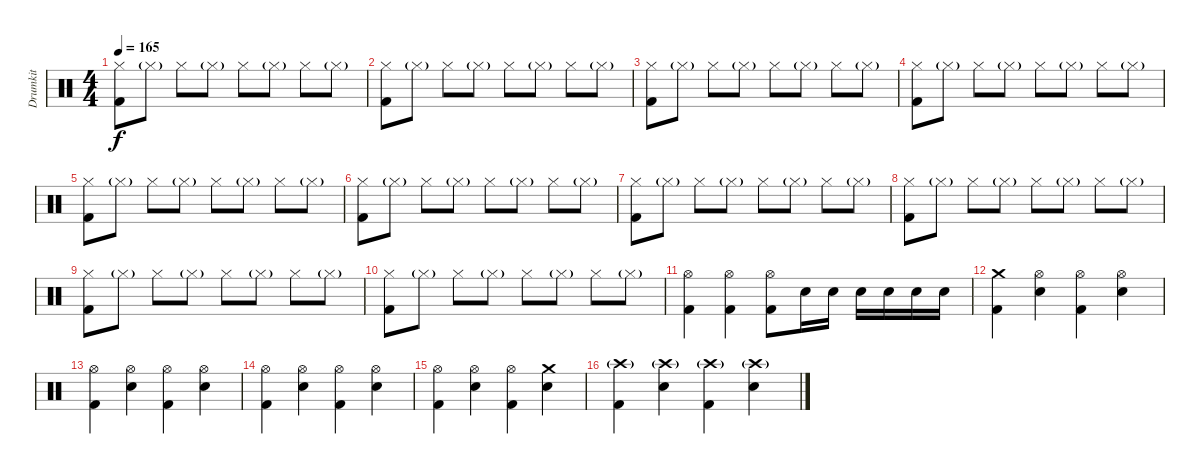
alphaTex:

\track ("Drumkit" "Drumkit") {instrument percussion}
\staff {score}
\articulation defaults
\ts (4 4)
\tempo 165
\clef neutral
\ks c
("Hi-Hat (closed)" "Kick (hit) 2").8{dy f} "Hi-Hat (closed)"{g}.8 "Hi-Hat (closed)".8 "Hi-Hat (closed)"{g}.8 "Hi-Hat (closed)".8 "Hi-Hat (closed)"{g}.8 "Hi-Hat (closed)".8 "Hi-Hat (closed)"{g}.8 |
("Hi-Hat (closed)" "Kick (hit) 2").8 "Hi-Hat (closed)"{g}.8 "Hi-Hat (closed)".8 "Hi-Hat (closed)"{g}.8 "Hi-Hat (closed)".8 "Hi-Hat (closed)"{g}.8 "Hi-Hat (closed)".8 "Hi-Hat (closed)"{g}.8 |
("Hi-Hat (closed)" "Kick (hit) 2").8 "Hi-Hat (closed)"{g}.8 "Hi-Hat (closed)".8 "Hi-Hat (closed)"{g}.8 "Hi-Hat (closed)".8 "Hi-Hat (closed)"{g}.8 "Hi-Hat (closed)".8 "Hi-Hat (closed)"{g}.8 |
("Hi-Hat (closed)" "Kick (hit) 2").8 "Hi-Hat (closed)"{g}.8 "Hi-Hat (closed)".8 "Hi-Hat (closed)"{g}.8 "Hi-Hat (closed)".8 "Hi-Hat (closed)"{g}.8 "Hi-Hat (closed)".8 "Hi-Hat (closed)"{g}.8 |
("Hi-Hat (closed)" "Kick (hit) 2").8 "Hi-Hat (closed)"{g}.8 "Hi-Hat (closed)".8 "Hi-Hat (closed)"{g}.8 "Hi-Hat (closed)".8 "Hi-Hat (closed)"{g}.8 "Hi-Hat (closed)".8 "Hi-Hat (closed)"{g}.8 |
("Hi-Hat (closed)" "Kick (hit) 2").8 "Hi-Hat (closed)"{g}.8 "Hi-Hat (closed)".8 "Hi-Hat (closed)"{g}.8 "Hi-Hat (closed)".8 "Hi-Hat (closed)"{g}.8 "Hi-Hat (closed)".8 "Hi-Hat (closed)"{g}.8 |
("Hi-Hat (closed)" "Kick (hit) 2").8 "Hi-Hat (closed)"{g}.8 "Hi-Hat (closed)".8 "Hi-Hat (closed)"{g}.8 "Hi-Hat (closed)".8 "Hi-Hat (closed)"{g}.8 "Hi-Hat (closed)".8 "Hi-Hat (closed)"{g}.8 |
("Hi-Hat (closed)" "Kick (hit) 2").8 "Hi-Hat (closed)"{g}.8 "Hi-Hat (closed)".8 "Hi-Hat (closed)"{g}.8 "Hi-Hat (closed)".8 "Hi-Hat (closed)"{g}.8 "Hi-Hat (closed)".8 "Hi-Hat (closed)"{g}.8 |
("Hi-Hat (closed)" "Kick (hit) 2").8 "Hi-Hat (closed)"{g}.8 "Hi-Hat (closed)".8 "Hi-Hat (closed)"{g}.8 "Hi-Hat (closed)".8 "Hi-Hat (closed)"{g}.8 "Hi-Hat (closed)".8 "Hi-Hat (closed)"{g}.8 |
("Hi-Hat (closed)" "Kick (hit) 2").8 "Hi-Hat (closed)"{g}.8 "Hi-Hat (closed)".8 "Hi-Hat (closed)"{g}.8 "Hi-Hat (closed)".8 "Hi-Hat (closed)"{g}.8 "Hi-Hat (closed)".8 "Hi-Hat (closed)"{g}.8 |
("Hi-Hat (open)" "Kick (hit) 2").4 ("Hi-Hat (open)" "Kick (hit) 2").4 ("Hi-Hat (open)" "Kick (hit) 2").8 "Snare (hit) 2".16 "Snare (hit) 2".16 "Snare (hit) 2".16 "Snare (hit) 2".16 "Snare (hit) 2".16 "Snare (hit) 2".16 |
("Crash medium (hit)" "Kick (hit) 2").4 ("Hi-Hat (open)" "Snare (hit) 2").4 ("Hi-Hat (open)" "Kick (hit) 2").4 ("Hi-Hat (open)" "Snare (hit) 2").4 |
("Hi-Hat (open)" "Kick (hit) 2").4 ("Hi-Hat (open)" "Snare (hit) 2").4 ("Hi-Hat (open)" "Kick (hit) 2").4 ("Hi-Hat (open)" "Snare (hit) 2").4 |
("Hi-Hat (open)" "Kick (hit) 2").4 ("Hi-Hat (open)" "Snare (hit) 2").4 ("Hi-Hat (open)" "Kick (hit) 2").4 ("Hi-Hat (open)" "Snare (hit) 2").4 |
("Hi-Hat (open)" "Kick (hit) 2").4 ("Hi-Hat (open)" "Snare (hit) 2").4 ("Hi-Hat (open)" "Kick (hit) 2").4 ("Crash medium (hit)" "Snare (hit) 2").4 |
("Crash high (hit)"{g} "Kick (hit) 2").4 ("Crash high (hit)"{g} "Snare (hit) 2").4 ("Crash high (hit)"{g} "Kick (hit) 2").4 ("Crash high (hit)"{g} "Snare (hit) 2").4
